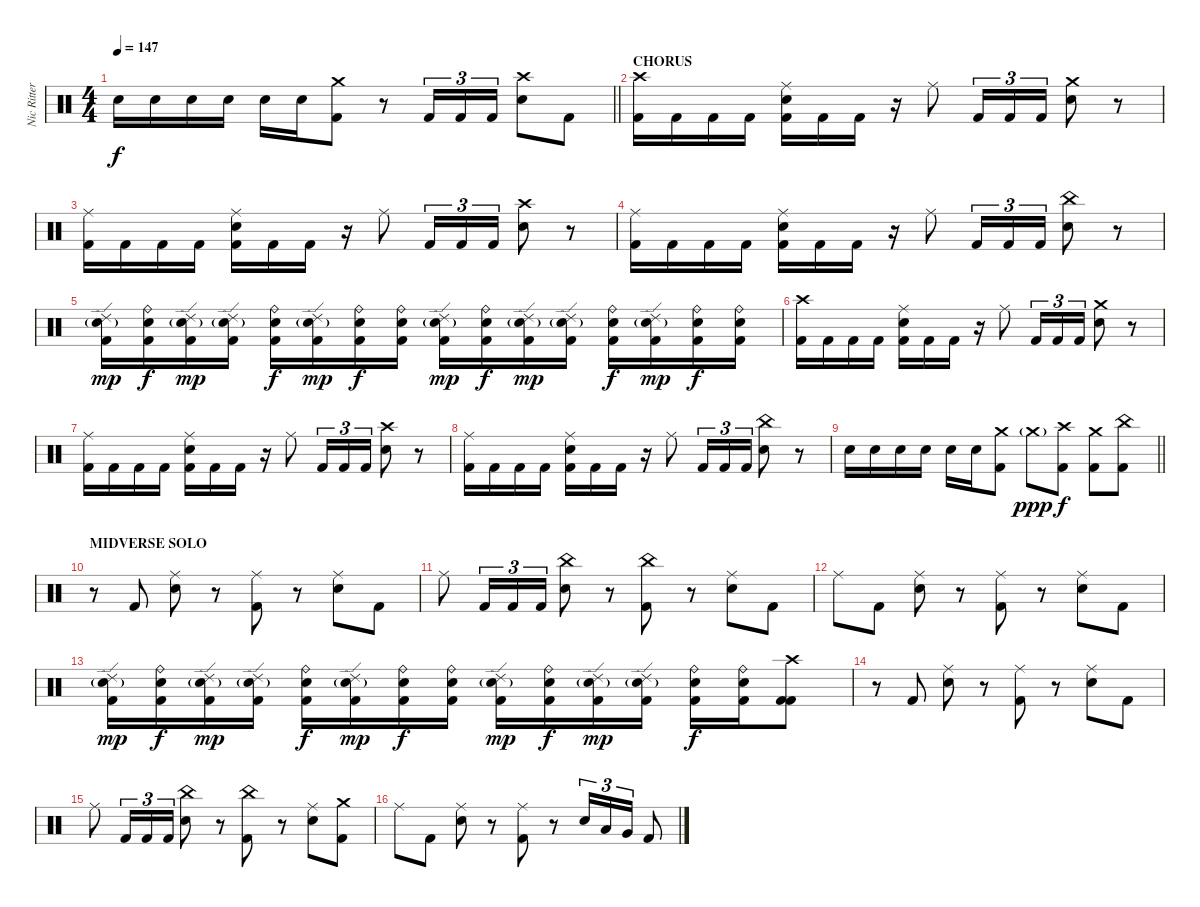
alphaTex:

\track ("Nic Ritter" "Nic Ritter") {instrument percussion}
\staff {score}
\articulation defaults
\ts (4 4)
\tempo 147
\clef neutral
\barLineRight lightlight
\ks c "Electric Snare (hit)".16{dy f} "Electric Snare (hit)".16 "Electric Snare (hit)".16 "Electric Snare (hit)".16 "Electric Snare (hit)".16 "Electric Snare (hit)".16
("Crash medium (hit)" "Kick (hit) 2").8 r.8 "Kick (hit) 2".16{tu (3 2)} "Kick (hit) 2".16{tu (3 2)} "Kick (hit) 2".16{tu (3 2)} ("Crash high (hit)" "Electric Snare (hit)").8 "Kick (hit) 2".8 |
\section ("" "CHORUS")
("Crash high (hit)" "Kick (hit) 2").16 "Kick (hit) 2".16 "Kick (hit) 2".16 "Kick (hit) 2".16 ("Ride (middle)" "Electric Snare (hit)" "Kick (hit) 2").16 "Kick (hit) 2".16 "Kick (hit) 2".16 r.16 "Ride (middle)".8 "Kick (hit) 2".16{tu (3 2)} "Kick (hit) 2".16{tu (3 2)} "Kick (hit) 2".16{tu (3 2)} ("Crash medium (hit)" "Electric Snare (hit)").8 r.8 |
("Ride (middle)" "Kick (hit) 2").16 "Kick (hit) 2".16 "Kick (hit) 2".16 "Kick (hit) 2".16 ("Ride (middle)" "Electric Snare (hit)" "Kick (hit) 2").16 "Kick (hit) 2".16 "Kick (hit) 2".16 r.16 "Ride (middle)".8 "Kick (hit) 2".16{tu (3 2)} "Kick (hit) 2".16{tu (3 2)} "Kick (hit) 2".16{tu (3 2)} ("Crash high (hit)" "Electric Snare (hit)").8 r.8 |
("Ride (middle)" "Kick (hit) 2").16 "Kick (hit) 2".16 "Kick (hit) 2".16 "Kick (hit) 2".16 ("Ride (middle)" "Electric Snare (hit)" "Kick (hit) 2").16 "Kick (hit) 2".16 "Kick (hit) 2".16 r.16 "Ride (middle)".8 "Kick (hit) 2".16{tu (3 2)} "Kick (hit) 2".16{tu (3 2)} "Kick (hit) 2".16{tu (3 2)} ("China (hit)" "Electric Snare (hit)").8 r.8 |
("Ride (edge) 2" "Electric Snare (hit)"{g} "Kick (hit) 2").16{dy mp} ("Ride (bell)" "Electric Snare (hit)" "Kick (hit) 2").16{dy f} ("Ride (edge) 2" "Electric Snare (hit)"{g} "Kick (hit) 2").16{dy mp} ("Ride (edge) 2" "Electric Snare (hit)"{g} "Kick (hit) 2").16 ("Ride (bell)" "Electric Snare (hit)" "Kick (hit) 2").16{dy f} ("Ride (edge) 2" "Electric Snare (hit)"{g} "Kick (hit) 2").16{dy mp} ("Ride (bell)" "Electric Snare (hit)" "Kick (hit) 2").16{dy f} ("Ride (bell)" "Electric Snare (hit)" "Kick (hit) 2").16 ("Ride (edge) 2" "Electric Snare (hit)"{g} "Kick (hit) 2").16{dy mp} ("Ride (bell)" "Electric Snare (hit)" "Kick (hit) 2").16{dy f} ("Ride (edge) 2" "Electric Snare (hit)"{g} "Kick (hit) 2").16{dy mp} ("Ride (edge) 2" "Electric Snare (hit)"{g} "Kick (hit) 2").16 ("Ride (bell)" "Electric Snare (hit)" "Kick (hit) 2").16{dy f} ("Ride (edge) 2" "Electric Snare (hit)"{g} "Kick (hit) 2").16{dy mp} ("Ride (bell)" "Electric Snare (hit)" "Kick (hit) 2").16{dy f} ("Ride (bell)" "Electric Snare (hit)" "Kick (hit) 2").16 |
("Crash high (hit)" "Kick (hit) 2").16 "Kick (hit) 2".16 "Kick (hit) 2".16 "Kick (hit) 2".16 ("Ride (middle)" "Electric Snare (hit)" "Kick (hit) 2").16 "Kick (hit) 2".16 "Kick (hit) 2".16 r.16 "Ride (middle)".8 "Kick (hit) 2".16{tu (3 2)} "Kick (hit) 2".16{tu (3 2)} "Kick (hit) 2".16{tu (3 2)} ("Crash medium (hit)" "Electric Snare (hit)").8 r.8 |
("Ride (middle)" "Kick (hit) 2").16 "Kick (hit) 2".16 "Kick (hit) 2".16 "Kick (hit) 2".16 ("Ride (middle)" "Electric Snare (hit)" "Kick (hit) 2").16 "Kick (hit) 2".16 "Kick (hit) 2".16 r.16 "Ride (middle)".8 "Kick (hit) 2".16{tu (3 2)} "Kick (hit) 2".16{tu (3 2)} "Kick (hit) 2".16{tu (3 2)} ("Crash high (hit)" "Electric Snare (hit)").8 r.8 |
("Ride (middle)" "Kick (hit) 2").16 "Kick (hit) 2".16 "Kick (hit) 2".16 "Kick (hit) 2".16 ("Ride (middle)" "Electric Snare (hit)" "Kick (hit) 2").16 "Kick (hit) 2".16 "Kick (hit) 2".16 r.16 "Ride (middle)".8 "Kick (hit) 2".16{tu (3 2)} "Kick (hit) 2".16{tu (3 2)} "Kick (hit) 2".16{tu (3 2)} ("China (hit)" "Electric Snare (hit)").8 r.8 |
\barLineRight lightlight "Electric Snare (hit)".16 "Electric Snare (hit)".16 "Electric Snare (hit)".16 "Electric Snare (hit)".16 "Electric Snare (hit)".16 "Electric Snare (hit)".16
("Crash medium (hit)" "Kick (hit) 2").8 "Crash medium (hit)"{g}.8{dy ppp} ("Crash high (hit)" "Kick (hit) 2").8{dy f} ("Crash medium (hit)" "Kick (hit) 2").8 ("China (hit)" "Kick (hit) 2").8 |
\section ("" "MIDVERSE SOLO")
r.8 "Kick (hit) 2".8 ("Ride (middle)" "Electric Snare (hit)").8 r.8 ("Ride (middle)" "Kick (hit) 2").8 r.8 ("Ride (middle)" "Electric Snare (hit)").8 "Kick (hit) 2".8 |
"Ride (middle)".8 "Kick (hit) 2".16{tu (3 2)} "Kick (hit) 2".16{tu (3 2)} "Kick (hit) 2".16{tu (3 2)} ("China (hit)" "Electric Snare (hit)").8 r.8 ("China (hit)" "Kick (hit) 2").8 r.8 ("Ride (middle)" "Electric Snare (hit)").8 "Kick (hit) 2".8 |
"Ride (middle)".8 "Kick (hit) 2".8 ("Ride (middle)" "Electric Snare (hit)").8 r.8 ("Ride (middle)" "Kick (hit) 2").8 r.8 ("Ride (middle)" "Electric Snare (hit)").8 "Kick (hit) 2".8 |
("Ride (edge) 2" "Electric Snare (hit)"{g} "Kick (hit) 2").16{dy mp} ("Ride (bell)" "Electric Snare (hit)" "Kick (hit) 2").16{dy f} ("Ride (edge) 2" "Electric Snare (hit)"{g} "Kick (hit) 2").16{dy mp} ("Ride (edge) 2" "Electric Snare (hit)"{g} "Kick (hit) 2").16 ("Ride (bell)" "Electric Snare (hit)" "Kick (hit) 2").16{dy f} ("Ride (edge) 2" "Electric Snare (hit)"{g} "Kick (hit) 2").16{dy mp} ("Ride (bell)" "Electric Snare (hit)" "Kick (hit) 2").16{dy f} ("Ride (bell)" "Electric Snare (hit)" "Kick (hit) 2").16 ("Ride (edge) 2" "Electric Snare (hit)"{g} "Kick (hit) 2").16{dy mp} ("Ride (bell)" "Electric Snare (hit)" "Kick (hit) 2").16{dy f} ("Ride (edge) 2" "Electric Snare (hit)"{g} "Kick (hit) 2").16{dy mp} ("Ride (edge) 2" "Electric Snare (hit)"{g} "Kick (hit) 2").16 ("Ride (bell)" "Electric Snare (hit)" "Kick (hit) 2").16{dy f} ("Ride (bell)" "Electric Snare (hit)" "Kick (hit) 2").16 ("Crash high (hit)" "Kick (hit) 2" "Kick (hit) 2").8 |
r.8 "Kick (hit) 2".8 ("Ride (middle)" "Electric Snare (hit)").8 r.8 ("Ride (middle)" "Kick (hit) 2").8 r.8 ("Ride (middle)" "Electric Snare (hit)").8 "Kick (hit) 2".8 |
"Ride (middle)".8 "Kick (hit) 2".16{tu (3 2)} "Kick (hit) 2".16{tu (3 2)} "Kick (hit) 2".16{tu (3 2)} ("China (hit)" "Electric Snare (hit)").8 r.8 ("China (hit)" "Kick (hit) 2").8 r.8 ("Ride (middle)" "Electric Snare (hit)").8 ("Crash medium (hit)" "Kick (hit) 2").8 |
"Ride (middle)".8 "Kick (hit) 2".8 ("Ride (middle)" "Electric Snare (hit)").8 r.8 ("Ride (middle)" "Kick (hit) 2").8 r.8 "Electric Snare (hit)".16{tu (3 2)} "Low Tom (hit)".16{tu (3 2)} "Very Low Tom (hit)".16{tu (3 2)} "Kick (hit) 2".8
